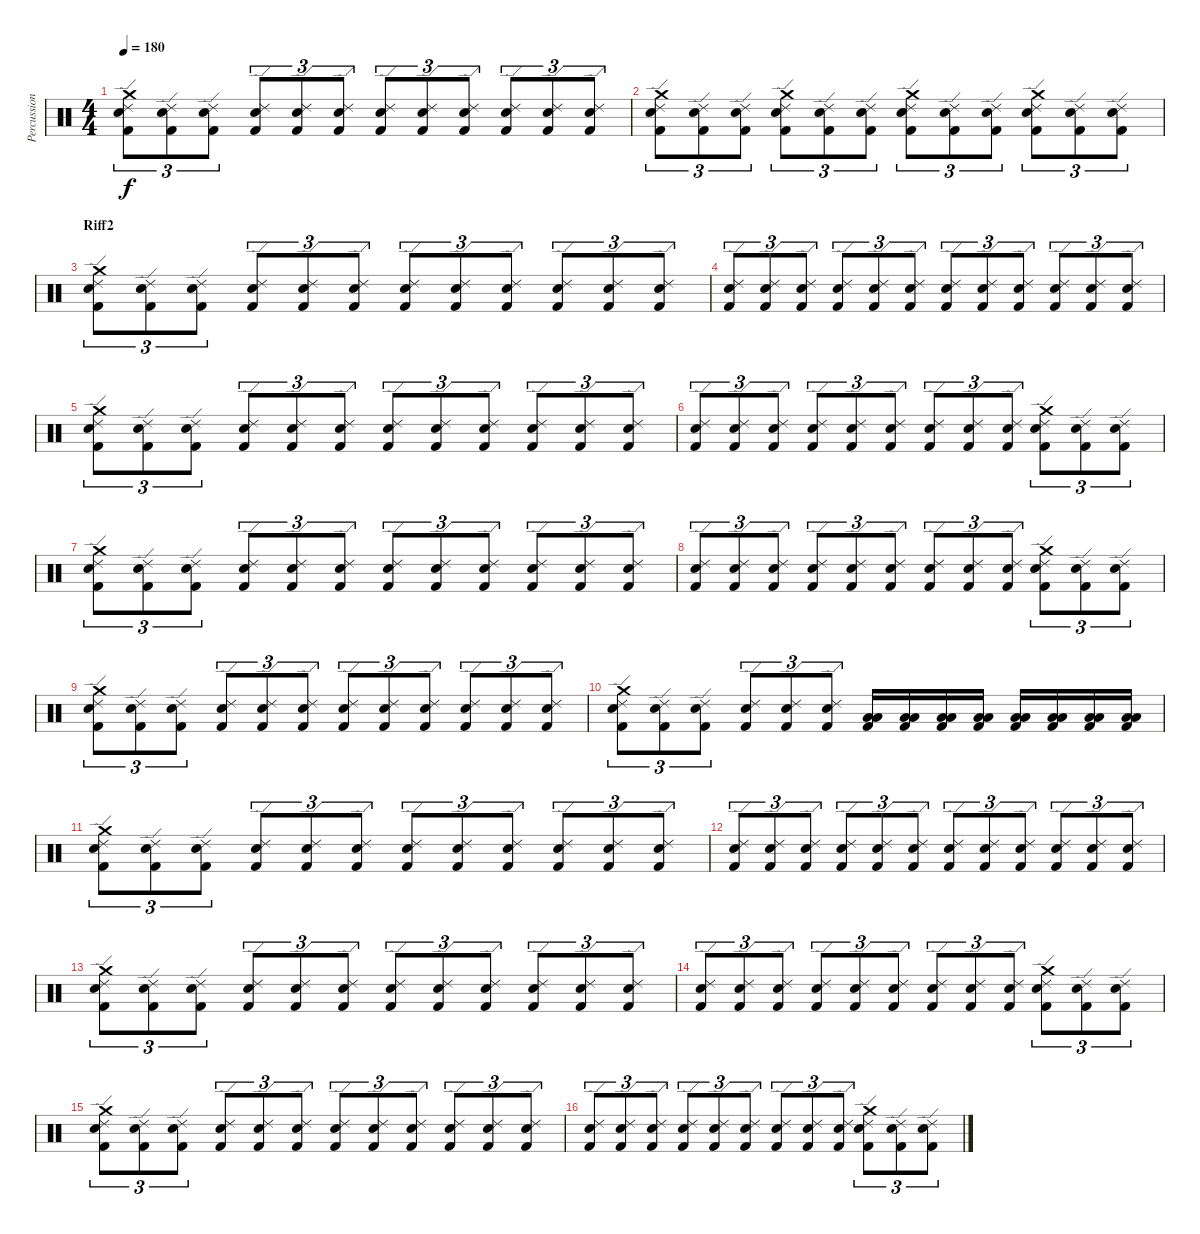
\track ("Percussioni" "Percussion") {instrument percussion}
\staff {score}
\articulation defaults
\ts (4 4)
\tempo 180
\clef neutral
\ks c
("Crash medium (hit)" "Ride (edge) 2" "Snare (hit) 2" "Kick (hit) 2").8{tu (3 2) dy f} ("Ride (edge) 2" "Snare (hit) 2" "Kick (hit) 2").8{tu (3 2)} ("Ride (edge) 2" "Snare (hit) 2" "Kick (hit) 2").8{tu (3 2)} ("Ride (edge) 2" "Snare (hit) 2" "Kick (hit) 2").8{tu (3 2)} ("Ride (edge) 2" "Snare (hit) 2" "Kick (hit) 2").8{tu (3 2)} ("Ride (edge) 2" "Snare (hit) 2" "Kick (hit) 2").8{tu (3 2)} ("Ride (edge) 2" "Snare (hit) 2" "Kick (hit) 2").8{tu (3 2)} ("Ride (edge) 2" "Snare (hit) 2" "Kick (hit) 2").8{tu (3 2)} ("Ride (edge) 2" "Snare (hit) 2" "Kick (hit) 2").8{tu (3 2)} ("Ride (edge) 2" "Snare (hit) 2" "Kick (hit) 2").8{tu (3 2)} ("Ride (edge) 2" "Snare (hit) 2" "Kick (hit) 2").8{tu (3 2)} ("Ride (edge) 2" "Snare (hit) 2" "Kick (hit) 2").8{tu (3 2)} |
("Crash medium (hit)" "Ride (edge) 2" "Snare (hit) 2" "Kick (hit) 2").8{tu (3 2)} ("Ride (edge) 2" "Snare (hit) 2" "Kick (hit) 2").8{tu (3 2)} ("Ride (edge) 2" "Snare (hit) 2" "Kick (hit) 2").8{tu (3 2)} ("Crash medium (hit)" "Ride (edge) 2" "Snare (hit) 2" "Kick (hit) 2").8{tu (3 2)} ("Ride (edge) 2" "Snare (hit) 2" "Kick (hit) 2").8{tu (3 2)} ("Ride (edge) 2" "Snare (hit) 2" "Kick (hit) 2").8{tu (3 2)} ("Crash medium (hit)" "Ride (edge) 2" "Snare (hit) 2" "Kick (hit) 2").8{tu (3 2)} ("Ride (edge) 2" "Snare (hit) 2" "Kick (hit) 2").8{tu (3 2)} ("Ride (edge) 2" "Snare (hit) 2" "Kick (hit) 2").8{tu (3 2)} ("Crash medium (hit)" "Ride (edge) 2" "Snare (hit) 2" "Kick (hit) 2").8{tu (3 2)} ("Ride (edge) 2" "Snare (hit) 2" "Kick (hit) 2").8{tu (3 2)} ("Ride (edge) 2" "Snare (hit) 2" "Kick (hit) 2").8{tu (3 2)} |
\section ("" "Riff2")
("Crash medium (hit)" "Ride (edge) 2" "Snare (hit) 2" "Kick (hit) 2").8{tu (3 2)} ("Ride (edge) 2" "Snare (hit) 2" "Kick (hit) 2").8{tu (3 2)} ("Ride (edge) 2" "Snare (hit) 2" "Kick (hit) 2").8{tu (3 2)} ("Ride (edge) 2" "Snare (hit) 2" "Kick (hit) 2").8{tu (3 2)} ("Ride (edge) 2" "Snare (hit) 2" "Kick (hit) 2").8{tu (3 2)} ("Ride (edge) 2" "Snare (hit) 2" "Kick (hit) 2").8{tu (3 2)} ("Ride (edge) 2" "Snare (hit) 2" "Kick (hit) 2").8{tu (3 2)} ("Ride (edge) 2" "Snare (hit) 2" "Kick (hit) 2").8{tu (3 2)} ("Ride (edge) 2" "Snare (hit) 2" "Kick (hit) 2").8{tu (3 2)} ("Ride (edge) 2" "Snare (hit) 2" "Kick (hit) 2").8{tu (3 2)} ("Ride (edge) 2" "Snare (hit) 2" "Kick (hit) 2").8{tu (3 2)} ("Ride (edge) 2" "Snare (hit) 2" "Kick (hit) 2").8{tu (3 2)} |
("Ride (edge) 2" "Snare (hit) 2" "Kick (hit) 2").8{tu (3 2)} ("Ride (edge) 2" "Snare (hit) 2" "Kick (hit) 2").8{tu (3 2)} ("Ride (edge) 2" "Snare (hit) 2" "Kick (hit) 2").8{tu (3 2)} ("Ride (edge) 2" "Snare (hit) 2" "Kick (hit) 2").8{tu (3 2)} ("Ride (edge) 2" "Snare (hit) 2" "Kick (hit) 2").8{tu (3 2)} ("Ride (edge) 2" "Snare (hit) 2" "Kick (hit) 2").8{tu (3 2)} ("Ride (edge) 2" "Snare (hit) 2" "Kick (hit) 2").8{tu (3 2)} ("Ride (edge) 2" "Snare (hit) 2" "Kick (hit) 2").8{tu (3 2)} ("Ride (edge) 2" "Snare (hit) 2" "Kick (hit) 2").8{tu (3 2)} ("Ride (edge) 2" "Snare (hit) 2" "Kick (hit) 2").8{tu (3 2)} ("Ride (edge) 2" "Snare (hit) 2" "Kick (hit) 2").8{tu (3 2)} ("Ride (edge) 2" "Snare (hit) 2" "Kick (hit) 2").8{tu (3 2)} |
("Crash medium (hit)" "Ride (edge) 2" "Snare (hit) 2" "Kick (hit) 2").8{tu (3 2)} ("Ride (edge) 2" "Snare (hit) 2" "Kick (hit) 2").8{tu (3 2)} ("Ride (edge) 2" "Snare (hit) 2" "Kick (hit) 2").8{tu (3 2)} ("Ride (edge) 2" "Snare (hit) 2" "Kick (hit) 2").8{tu (3 2)} ("Ride (edge) 2" "Snare (hit) 2" "Kick (hit) 2").8{tu (3 2)} ("Ride (edge) 2" "Snare (hit) 2" "Kick (hit) 2").8{tu (3 2)} ("Ride (edge) 2" "Snare (hit) 2" "Kick (hit) 2").8{tu (3 2)} ("Ride (edge) 2" "Snare (hit) 2" "Kick (hit) 2").8{tu (3 2)} ("Ride (edge) 2" "Snare (hit) 2" "Kick (hit) 2").8{tu (3 2)} ("Ride (edge) 2" "Snare (hit) 2" "Kick (hit) 2").8{tu (3 2)} ("Ride (edge) 2" "Snare (hit) 2" "Kick (hit) 2").8{tu (3 2)} ("Ride (edge) 2" "Snare (hit) 2" "Kick (hit) 2").8{tu (3 2)} |
("Ride (edge) 2" "Snare (hit) 2" "Kick (hit) 2").8{tu (3 2)} ("Ride (edge) 2" "Snare (hit) 2" "Kick (hit) 2").8{tu (3 2)} ("Ride (edge) 2" "Snare (hit) 2" "Kick (hit) 2").8{tu (3 2)} ("Ride (edge) 2" "Snare (hit) 2" "Kick (hit) 2").8{tu (3 2)} ("Ride (edge) 2" "Snare (hit) 2" "Kick (hit) 2").8{tu (3 2)} ("Ride (edge) 2" "Snare (hit) 2" "Kick (hit) 2").8{tu (3 2)} ("Ride (edge) 2" "Snare (hit) 2" "Kick (hit) 2").8{tu (3 2)} ("Ride (edge) 2" "Snare (hit) 2" "Kick (hit) 2").8{tu (3 2)} ("Ride (edge) 2" "Snare (hit) 2" "Kick (hit) 2").8{tu (3 2)} ("Crash medium (hit)" "Ride (edge) 2" "Snare (hit) 2" "Kick (hit) 2").8{tu (3 2)} ("Ride (edge) 2" "Snare (hit) 2" "Kick (hit) 2").8{tu (3 2)} ("Ride (edge) 2" "Snare (hit) 2" "Kick (hit) 2").8{tu (3 2)} |
("Crash medium (hit)" "Ride (edge) 2" "Snare (hit) 2" "Kick (hit) 2").8{tu (3 2)} ("Ride (edge) 2" "Snare (hit) 2" "Kick (hit) 2").8{tu (3 2)} ("Ride (edge) 2" "Snare (hit) 2" "Kick (hit) 2").8{tu (3 2)} ("Ride (edge) 2" "Snare (hit) 2" "Kick (hit) 2").8{tu (3 2)} ("Ride (edge) 2" "Snare (hit) 2" "Kick (hit) 2").8{tu (3 2)} ("Ride (edge) 2" "Snare (hit) 2" "Kick (hit) 2").8{tu (3 2)} ("Ride (edge) 2" "Snare (hit) 2" "Kick (hit) 2").8{tu (3 2)} ("Ride (edge) 2" "Snare (hit) 2" "Kick (hit) 2").8{tu (3 2)} ("Ride (edge) 2" "Snare (hit) 2" "Kick (hit) 2").8{tu (3 2)} ("Ride (edge) 2" "Snare (hit) 2" "Kick (hit) 2").8{tu (3 2)} ("Ride (edge) 2" "Snare (hit) 2" "Kick (hit) 2").8{tu (3 2)} ("Ride (edge) 2" "Snare (hit) 2" "Kick (hit) 2").8{tu (3 2)} |
("Ride (edge) 2" "Snare (hit) 2" "Kick (hit) 2").8{tu (3 2)} ("Ride (edge) 2" "Snare (hit) 2" "Kick (hit) 2").8{tu (3 2)} ("Ride (edge) 2" "Snare (hit) 2" "Kick (hit) 2").8{tu (3 2)} ("Ride (edge) 2" "Snare (hit) 2" "Kick (hit) 2").8{tu (3 2)} ("Ride (edge) 2" "Snare (hit) 2" "Kick (hit) 2").8{tu (3 2)} ("Ride (edge) 2" "Snare (hit) 2" "Kick (hit) 2").8{tu (3 2)} ("Ride (edge) 2" "Snare (hit) 2" "Kick (hit) 2").8{tu (3 2)} ("Ride (edge) 2" "Snare (hit) 2" "Kick (hit) 2").8{tu (3 2)} ("Ride (edge) 2" "Snare (hit) 2" "Kick (hit) 2").8{tu (3 2)} ("Crash medium (hit)" "Ride (edge) 2" "Snare (hit) 2" "Kick (hit) 2").8{tu (3 2)} ("Ride (edge) 2" "Snare (hit) 2" "Kick (hit) 2").8{tu (3 2)} ("Ride (edge) 2" "Snare (hit) 2" "Kick (hit) 2").8{tu (3 2)} |
("Crash medium (hit)" "Ride (edge) 2" "Snare (hit) 2" "Kick (hit) 2").8{tu (3 2)} ("Ride (edge) 2" "Snare (hit) 2" "Kick (hit) 2").8{tu (3 2)} ("Ride (edge) 2" "Snare (hit) 2" "Kick (hit) 2").8{tu (3 2)} ("Ride (edge) 2" "Snare (hit) 2" "Kick (hit) 2").8{tu (3 2)} ("Ride (edge) 2" "Snare (hit) 2" "Kick (hit) 2").8{tu (3 2)} ("Ride (edge) 2" "Snare (hit) 2" "Kick (hit) 2").8{tu (3 2)} ("Ride (edge) 2" "Snare (hit) 2" "Kick (hit) 2").8{tu (3 2)} ("Ride (edge) 2" "Snare (hit) 2" "Kick (hit) 2").8{tu (3 2)} ("Ride (edge) 2" "Snare (hit) 2" "Kick (hit) 2").8{tu (3 2)} ("Ride (edge) 2" "Snare (hit) 2" "Kick (hit) 2").8{tu (3 2)} ("Ride (edge) 2" "Snare (hit) 2" "Kick (hit) 2").8{tu (3 2)} ("Ride (edge) 2" "Snare (hit) 2" "Kick (hit) 2").8{tu (3 2)} |
("Crash medium (hit)" "Ride (edge) 2" "Snare (hit) 2" "Kick (hit) 2").8{tu (3 2)} ("Ride (edge) 2" "Snare (hit) 2" "Kick (hit) 2").8{tu (3 2)} ("Ride (edge) 2" "Snare (hit) 2" "Kick (hit) 2").8{tu (3 2)} ("Ride (edge) 2" "Snare (hit) 2" "Kick (hit) 2").8{tu (3 2)} ("Ride (edge) 2" "Snare (hit) 2" "Kick (hit) 2").8{tu (3 2)} ("Ride (edge) 2" "Snare (hit) 2" "Kick (hit) 2").8{tu (3 2)} ("Low Tom (hit)" "Low Floor Tom (hit)" "Kick (hit) 2").16 ("Low Tom (hit)" "Low Floor Tom (hit)" "Kick (hit) 2").16 ("Low Tom (hit)" "Low Floor Tom (hit)" "Kick (hit) 2").16 ("Low Tom (hit)" "Low Floor Tom (hit)" "Kick (hit) 2").16 ("Low Tom (hit)" "Low Floor Tom (hit)" "Kick (hit) 2").16 ("Low Tom (hit)" "Low Floor Tom (hit)" "Kick (hit) 2").16 ("Low Tom (hit)" "Low Floor Tom (hit)" "Kick (hit) 2").16 ("Low Tom (hit)" "Low Floor Tom (hit)" "Kick (hit) 2").16 |
("Crash medium (hit)" "Ride (edge) 2" "Snare (hit) 2" "Kick (hit) 2").8{tu (3 2)} ("Ride (edge) 2" "Snare (hit) 2" "Kick (hit) 2").8{tu (3 2)} ("Ride (edge) 2" "Snare (hit) 2" "Kick (hit) 2").8{tu (3 2)} ("Ride (edge) 2" "Snare (hit) 2" "Kick (hit) 2").8{tu (3 2)} ("Ride (edge) 2" "Snare (hit) 2" "Kick (hit) 2").8{tu (3 2)} ("Ride (edge) 2" "Snare (hit) 2" "Kick (hit) 2").8{tu (3 2)} ("Ride (edge) 2" "Snare (hit) 2" "Kick (hit) 2").8{tu (3 2)} ("Ride (edge) 2" "Snare (hit) 2" "Kick (hit) 2").8{tu (3 2)} ("Ride (edge) 2" "Snare (hit) 2" "Kick (hit) 2").8{tu (3 2)} ("Ride (edge) 2" "Snare (hit) 2" "Kick (hit) 2").8{tu (3 2)} ("Ride (edge) 2" "Snare (hit) 2" "Kick (hit) 2").8{tu (3 2)} ("Ride (edge) 2" "Snare (hit) 2" "Kick (hit) 2").8{tu (3 2)} |
("Ride (edge) 2" "Snare (hit) 2" "Kick (hit) 2").8{tu (3 2)} ("Ride (edge) 2" "Snare (hit) 2" "Kick (hit) 2").8{tu (3 2)} ("Ride (edge) 2" "Snare (hit) 2" "Kick (hit) 2").8{tu (3 2)} ("Ride (edge) 2" "Snare (hit) 2" "Kick (hit) 2").8{tu (3 2)} ("Ride (edge) 2" "Snare (hit) 2" "Kick (hit) 2").8{tu (3 2)} ("Ride (edge) 2" "Snare (hit) 2" "Kick (hit) 2").8{tu (3 2)} ("Ride (edge) 2" "Snare (hit) 2" "Kick (hit) 2").8{tu (3 2)} ("Ride (edge) 2" "Snare (hit) 2" "Kick (hit) 2").8{tu (3 2)} ("Ride (edge) 2" "Snare (hit) 2" "Kick (hit) 2").8{tu (3 2)} ("Ride (edge) 2" "Snare (hit) 2" "Kick (hit) 2").8{tu (3 2)} ("Ride (edge) 2" "Snare (hit) 2" "Kick (hit) 2").8{tu (3 2)} ("Ride (edge) 2" "Snare (hit) 2" "Kick (hit) 2").8{tu (3 2)} |
("Crash medium (hit)" "Ride (edge) 2" "Snare (hit) 2" "Kick (hit) 2").8{tu (3 2)} ("Ride (edge) 2" "Snare (hit) 2" "Kick (hit) 2").8{tu (3 2)} ("Ride (edge) 2" "Snare (hit) 2" "Kick (hit) 2").8{tu (3 2)} ("Ride (edge) 2" "Snare (hit) 2" "Kick (hit) 2").8{tu (3 2)} ("Ride (edge) 2" "Snare (hit) 2" "Kick (hit) 2").8{tu (3 2)} ("Ride (edge) 2" "Snare (hit) 2" "Kick (hit) 2").8{tu (3 2)} ("Ride (edge) 2" "Snare (hit) 2" "Kick (hit) 2").8{tu (3 2)} ("Ride (edge) 2" "Snare (hit) 2" "Kick (hit) 2").8{tu (3 2)} ("Ride (edge) 2" "Snare (hit) 2" "Kick (hit) 2").8{tu (3 2)} ("Ride (edge) 2" "Snare (hit) 2" "Kick (hit) 2").8{tu (3 2)} ("Ride (edge) 2" "Snare (hit) 2" "Kick (hit) 2").8{tu (3 2)} ("Ride (edge) 2" "Snare (hit) 2" "Kick (hit) 2").8{tu (3 2)} |
("Ride (edge) 2" "Snare (hit) 2" "Kick (hit) 2").8{tu (3 2)} ("Ride (edge) 2" "Snare (hit) 2" "Kick (hit) 2").8{tu (3 2)} ("Ride (edge) 2" "Snare (hit) 2" "Kick (hit) 2").8{tu (3 2)} ("Ride (edge) 2" "Snare (hit) 2" "Kick (hit) 2").8{tu (3 2)} ("Ride (edge) 2" "Snare (hit) 2" "Kick (hit) 2").8{tu (3 2)} ("Ride (edge) 2" "Snare (hit) 2" "Kick (hit) 2").8{tu (3 2)} ("Ride (edge) 2" "Snare (hit) 2" "Kick (hit) 2").8{tu (3 2)} ("Ride (edge) 2" "Snare (hit) 2" "Kick (hit) 2").8{tu (3 2)} ("Ride (edge) 2" "Snare (hit) 2" "Kick (hit) 2").8{tu (3 2)} ("Crash medium (hit)" "Ride (edge) 2" "Snare (hit) 2" "Kick (hit) 2").8{tu (3 2)} ("Ride (edge) 2" "Snare (hit) 2" "Kick (hit) 2").8{tu (3 2)} ("Ride (edge) 2" "Snare (hit) 2" "Kick (hit) 2").8{tu (3 2)} |
("Crash medium (hit)" "Ride (edge) 2" "Snare (hit) 2" "Kick (hit) 2").8{tu (3 2)} ("Ride (edge) 2" "Snare (hit) 2" "Kick (hit) 2").8{tu (3 2)} ("Ride (edge) 2" "Snare (hit) 2" "Kick (hit) 2").8{tu (3 2)} ("Ride (edge) 2" "Snare (hit) 2" "Kick (hit) 2").8{tu (3 2)} ("Ride (edge) 2" "Snare (hit) 2" "Kick (hit) 2").8{tu (3 2)} ("Ride (edge) 2" "Snare (hit) 2" "Kick (hit) 2").8{tu (3 2)} ("Ride (edge) 2" "Snare (hit) 2" "Kick (hit) 2").8{tu (3 2)} ("Ride (edge) 2" "Snare (hit) 2" "Kick (hit) 2").8{tu (3 2)} ("Ride (edge) 2" "Snare (hit) 2" "Kick (hit) 2").8{tu (3 2)} ("Ride (edge) 2" "Snare (hit) 2" "Kick (hit) 2").8{tu (3 2)} ("Ride (edge) 2" "Snare (hit) 2" "Kick (hit) 2").8{tu (3 2)} ("Ride (edge) 2" "Snare (hit) 2" "Kick (hit) 2").8{tu (3 2)} |
("Ride (edge) 2" "Snare (hit) 2" "Kick (hit) 2").8{tu (3 2)} ("Ride (edge) 2" "Snare (hit) 2" "Kick (hit) 2").8{tu (3 2)} ("Ride (edge) 2" "Snare (hit) 2" "Kick (hit) 2").8{tu (3 2)} ("Ride (edge) 2" "Snare (hit) 2" "Kick (hit) 2").8{tu (3 2)} ("Ride (edge) 2" "Snare (hit) 2" "Kick (hit) 2").8{tu (3 2)} ("Ride (edge) 2" "Snare (hit) 2" "Kick (hit) 2").8{tu (3 2)} ("Ride (edge) 2" "Snare (hit) 2" "Kick (hit) 2").8{tu (3 2)} ("Ride (edge) 2" "Snare (hit) 2" "Kick (hit) 2").8{tu (3 2)} ("Ride (edge) 2" "Snare (hit) 2" "Kick (hit) 2").8{tu (3 2)} ("Crash medium (hit)" "Ride (edge) 2" "Snare (hit) 2" "Kick (hit) 2").8{tu (3 2)} ("Ride (edge) 2" "Snare (hit) 2" "Kick (hit) 2").8{tu (3 2)} ("Ride (edge) 2" "Snare (hit) 2" "Kick (hit) 2").8{tu (3 2)}
